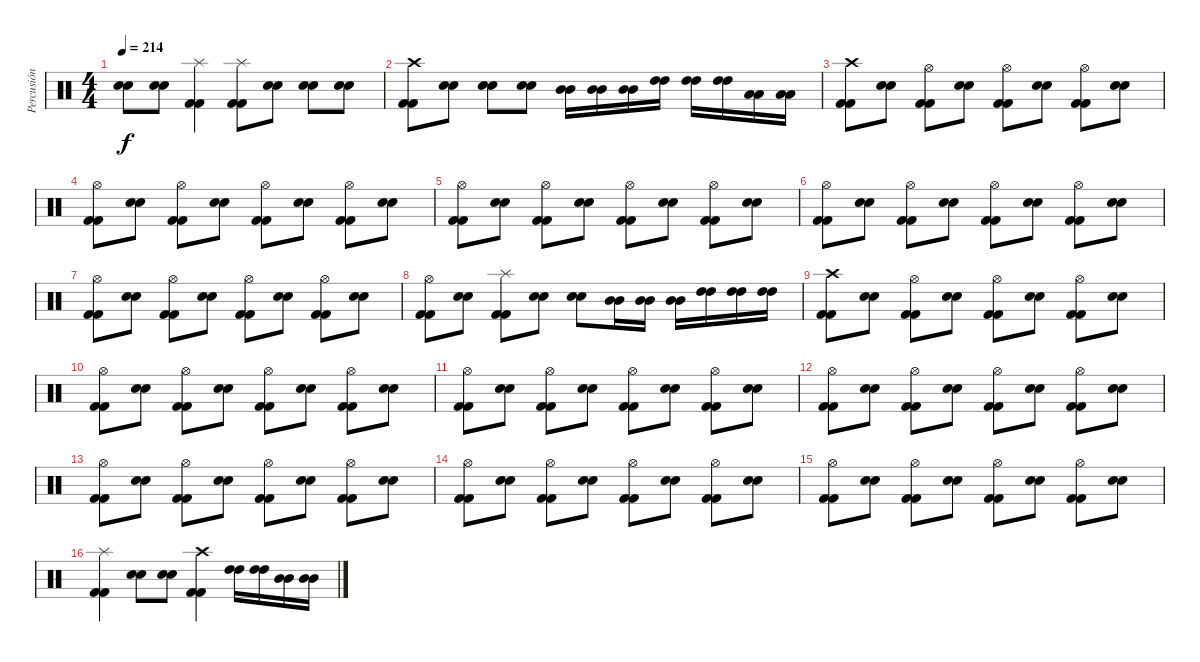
\track ("Percusión" "Percusión") {instrument percussion}
\staff {score}
\articulation defaults
\ts (4 4)
\tempo 214
\clef neutral
\ks c
("Electric Snare (hit)" "Electric Snare (hit)").8{dy f} ("Electric Snare (hit)" "Electric Snare (hit)").8 ("Kick (hit) 2" "Kick (hit) 2" "Splash (hit)").4 ("Kick (hit) 2" "Kick (hit) 2" "Splash (hit)").8 ("Electric Snare (hit)" "Electric Snare (hit)").8 ("Electric Snare (hit)" "Electric Snare (hit)").8 ("Electric Snare (hit)" "Electric Snare (hit)").8 |
("Kick (hit) 2" "Kick (hit) 2" "Crash high (hit)").8 ("Electric Snare (hit)" "Electric Snare (hit)").8 ("Electric Snare (hit)" "Electric Snare (hit)").8 ("Electric Snare (hit)" "Electric Snare (hit)").8 ("Mid Tom (hit)" "Mid Tom (hit)").16 ("Mid Tom (hit)" "Mid Tom (hit)").16 ("Mid Tom (hit)" "Mid Tom (hit)").16 ("High Tom (hit)" "High Tom (hit)").16 ("High Tom (hit)" "High Tom (hit)").16 ("High Tom (hit)" "High Tom (hit)").16 ("Low Floor Tom (hit)" "Low Floor Tom (hit)").16 ("Low Floor Tom (hit)" "Low Floor Tom (hit)").16 |
("Kick (hit) 2" "Kick (hit) 2" "Crash high (hit)").8 ("Electric Snare (hit)" "Electric Snare (hit)").8 ("Kick (hit) 2" "Kick (hit) 2" "Hi-Hat (open)").8 ("Electric Snare (hit)" "Electric Snare (hit)").8 ("Kick (hit) 2" "Kick (hit) 2" "Hi-Hat (open)").8 ("Electric Snare (hit)" "Electric Snare (hit)").8 ("Kick (hit) 2" "Kick (hit) 2" "Hi-Hat (open)").8 ("Electric Snare (hit)" "Electric Snare (hit)").8 |
("Kick (hit) 2" "Kick (hit) 2" "Hi-Hat (open)").8 ("Electric Snare (hit)" "Electric Snare (hit)").8 ("Kick (hit) 2" "Kick (hit) 2" "Hi-Hat (open)").8 ("Electric Snare (hit)" "Electric Snare (hit)").8 ("Kick (hit) 2" "Kick (hit) 2" "Hi-Hat (open)").8 ("Electric Snare (hit)" "Electric Snare (hit)").8 ("Kick (hit) 2" "Kick (hit) 2" "Hi-Hat (open)").8 ("Electric Snare (hit)" "Electric Snare (hit)").8 |
("Kick (hit) 2" "Kick (hit) 2" "Hi-Hat (open)").8 ("Electric Snare (hit)" "Electric Snare (hit)").8 ("Kick (hit) 2" "Kick (hit) 2" "Hi-Hat (open)").8 ("Electric Snare (hit)" "Electric Snare (hit)").8 ("Kick (hit) 2" "Kick (hit) 2" "Hi-Hat (open)").8 ("Electric Snare (hit)" "Electric Snare (hit)").8 ("Kick (hit) 2" "Kick (hit) 2" "Hi-Hat (open)").8 ("Electric Snare (hit)" "Electric Snare (hit)").8 |
("Kick (hit) 2" "Kick (hit) 2" "Hi-Hat (open)").8 ("Electric Snare (hit)" "Electric Snare (hit)").8 ("Kick (hit) 2" "Kick (hit) 2" "Hi-Hat (open)").8 ("Electric Snare (hit)" "Electric Snare (hit)").8 ("Kick (hit) 2" "Kick (hit) 2" "Hi-Hat (open)").8 ("Electric Snare (hit)" "Electric Snare (hit)").8 ("Kick (hit) 2" "Kick (hit) 2" "Hi-Hat (open)").8 ("Electric Snare (hit)" "Electric Snare (hit)").8 |
("Kick (hit) 2" "Kick (hit) 2" "Hi-Hat (open)").8 ("Electric Snare (hit)" "Electric Snare (hit)").8 ("Kick (hit) 2" "Kick (hit) 2" "Hi-Hat (open)").8 ("Electric Snare (hit)" "Electric Snare (hit)").8 ("Kick (hit) 2" "Kick (hit) 2" "Hi-Hat (open)").8 ("Electric Snare (hit)" "Electric Snare (hit)").8 ("Kick (hit) 2" "Kick (hit) 2" "Hi-Hat (open)").8 ("Electric Snare (hit)" "Electric Snare (hit)").8 |
("Kick (hit) 2" "Kick (hit) 2" "Hi-Hat (open)").8 ("Electric Snare (hit)" "Electric Snare (hit)").8 ("Kick (hit) 2" "Kick (hit) 2" "Splash (hit)").8 ("Electric Snare (hit)" "Electric Snare (hit)").8 ("Electric Snare (hit)" "Electric Snare (hit)").8 ("Mid Tom (hit)" "Mid Tom (hit)").16 ("Mid Tom (hit)" "Mid Tom (hit)").16 ("Mid Tom (hit)" "Mid Tom (hit)").16 ("High Tom (hit)" "High Tom (hit)").16 ("High Tom (hit)" "High Tom (hit)").16 ("High Tom (hit)" "High Tom (hit)").16 |
("Kick (hit) 2" "Kick (hit) 2" "Crash high (hit)").8 ("Electric Snare (hit)" "Electric Snare (hit)").8 ("Kick (hit) 2" "Kick (hit) 2" "Hi-Hat (open)").8 ("Electric Snare (hit)" "Electric Snare (hit)").8 ("Kick (hit) 2" "Kick (hit) 2" "Hi-Hat (open)").8 ("Electric Snare (hit)" "Electric Snare (hit)").8 ("Kick (hit) 2" "Kick (hit) 2" "Hi-Hat (open)").8 ("Electric Snare (hit)" "Electric Snare (hit)").8 |
("Kick (hit) 2" "Kick (hit) 2" "Hi-Hat (open)").8 ("Electric Snare (hit)" "Electric Snare (hit)").8 ("Kick (hit) 2" "Kick (hit) 2" "Hi-Hat (open)").8 ("Electric Snare (hit)" "Electric Snare (hit)").8 ("Kick (hit) 2" "Kick (hit) 2" "Hi-Hat (open)").8 ("Electric Snare (hit)" "Electric Snare (hit)").8 ("Kick (hit) 2" "Kick (hit) 2" "Hi-Hat (open)").8 ("Electric Snare (hit)" "Electric Snare (hit)").8 |
("Kick (hit) 2" "Kick (hit) 2" "Hi-Hat (open)").8 ("Electric Snare (hit)" "Electric Snare (hit)").8 ("Kick (hit) 2" "Kick (hit) 2" "Hi-Hat (open)").8 ("Electric Snare (hit)" "Electric Snare (hit)").8 ("Kick (hit) 2" "Kick (hit) 2" "Hi-Hat (open)").8 ("Electric Snare (hit)" "Electric Snare (hit)").8 ("Kick (hit) 2" "Kick (hit) 2" "Hi-Hat (open)").8 ("Electric Snare (hit)" "Electric Snare (hit)").8 |
("Kick (hit) 2" "Kick (hit) 2" "Hi-Hat (open)").8 ("Electric Snare (hit)" "Electric Snare (hit)").8 ("Kick (hit) 2" "Kick (hit) 2" "Hi-Hat (open)").8 ("Electric Snare (hit)" "Electric Snare (hit)").8 ("Kick (hit) 2" "Kick (hit) 2" "Hi-Hat (open)").8 ("Electric Snare (hit)" "Electric Snare (hit)").8 ("Kick (hit) 2" "Kick (hit) 2" "Hi-Hat (open)").8 ("Electric Snare (hit)" "Electric Snare (hit)").8 |
("Kick (hit) 2" "Kick (hit) 2" "Hi-Hat (open)").8 ("Electric Snare (hit)" "Electric Snare (hit)").8 ("Kick (hit) 2" "Kick (hit) 2" "Hi-Hat (open)").8 ("Electric Snare (hit)" "Electric Snare (hit)").8 ("Kick (hit) 2" "Kick (hit) 2" "Hi-Hat (open)").8 ("Electric Snare (hit)" "Electric Snare (hit)").8 ("Kick (hit) 2" "Kick (hit) 2" "Hi-Hat (open)").8 ("Electric Snare (hit)" "Electric Snare (hit)").8 |
("Kick (hit) 2" "Kick (hit) 2" "Hi-Hat (open)").8 ("Electric Snare (hit)" "Electric Snare (hit)").8 ("Kick (hit) 2" "Kick (hit) 2" "Hi-Hat (open)").8 ("Electric Snare (hit)" "Electric Snare (hit)").8 ("Kick (hit) 2" "Kick (hit) 2" "Hi-Hat (open)").8 ("Electric Snare (hit)" "Electric Snare (hit)").8 ("Kick (hit) 2" "Kick (hit) 2" "Hi-Hat (open)").8 ("Electric Snare (hit)" "Electric Snare (hit)").8 |
("Kick (hit) 2" "Kick (hit) 2" "Hi-Hat (open)").8 ("Electric Snare (hit)" "Electric Snare (hit)").8 ("Kick (hit) 2" "Kick (hit) 2" "Hi-Hat (open)").8 ("Electric Snare (hit)" "Electric Snare (hit)").8 ("Kick (hit) 2" "Kick (hit) 2" "Hi-Hat (open)").8 ("Electric Snare (hit)" "Electric Snare (hit)").8 ("Kick (hit) 2" "Kick (hit) 2" "Hi-Hat (open)").8 ("Electric Snare (hit)" "Electric Snare (hit)").8 |
("Kick (hit) 2" "Kick (hit) 2" "Splash (hit)").4 ("Electric Snare (hit)" "Electric Snare (hit)").8 ("Electric Snare (hit)" "Electric Snare (hit)").8 ("Kick (hit) 2" "Kick (hit) 2" "Crash high (hit)").4 ("High Tom (hit)" "High Tom (hit)").16 ("High Tom (hit)" "High Tom (hit)").16 ("Mid Tom (hit)" "Mid Tom (hit)").16 ("Mid Tom (hit)" "Mid Tom (hit)").16
